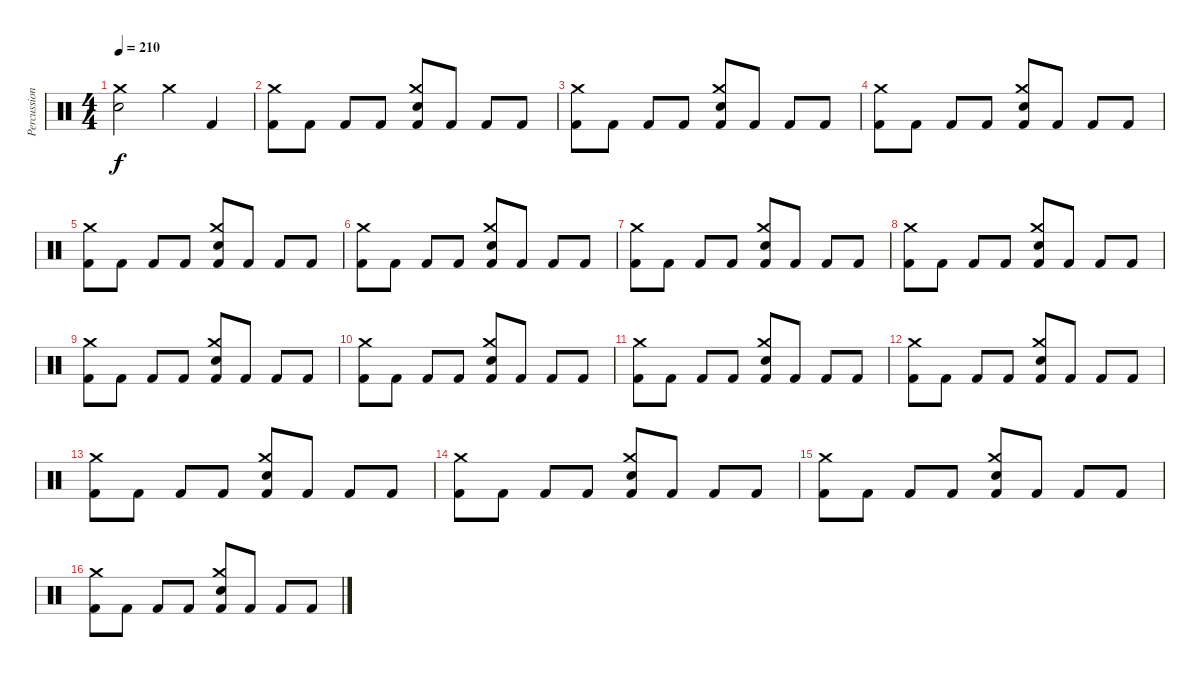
\track ("Percussions" "Percussion") {instrument percussion}
\staff {score}
\articulation defaults
\ts (4 4)
\tempo 210
\clef neutral
\ks c
("Electric Snare (hit)" "Crash medium (hit)").2{dy f} "Crash medium (hit)".4 "Kick (hit) 2".4 |
("Kick (hit) 2" "Crash medium (hit)").8 "Kick (hit) 2".8 "Kick (hit) 2".8 "Kick (hit) 2".8 ("Kick (hit) 2" "Electric Snare (hit)" "Crash medium (hit)").8 "Kick (hit) 2".8 "Kick (hit) 2".8 "Kick (hit) 2".8 |
("Kick (hit) 2" "Crash medium (hit)").8 "Kick (hit) 2".8 "Kick (hit) 2".8 "Kick (hit) 2".8 ("Kick (hit) 2" "Electric Snare (hit)" "Crash medium (hit)").8 "Kick (hit) 2".8 "Kick (hit) 2".8 "Kick (hit) 2".8 |
("Kick (hit) 2" "Crash medium (hit)").8 "Kick (hit) 2".8 "Kick (hit) 2".8 "Kick (hit) 2".8 ("Kick (hit) 2" "Electric Snare (hit)" "Crash medium (hit)").8 "Kick (hit) 2".8 "Kick (hit) 2".8 "Kick (hit) 2".8 |
("Kick (hit) 2" "Crash medium (hit)").8 "Kick (hit) 2".8 "Kick (hit) 2".8 "Kick (hit) 2".8 ("Kick (hit) 2" "Electric Snare (hit)" "Crash medium (hit)").8 "Kick (hit) 2".8 "Kick (hit) 2".8 "Kick (hit) 2".8 |
("Kick (hit) 2" "Crash medium (hit)").8 "Kick (hit) 2".8 "Kick (hit) 2".8 "Kick (hit) 2".8 ("Kick (hit) 2" "Electric Snare (hit)" "Crash medium (hit)").8 "Kick (hit) 2".8 "Kick (hit) 2".8 "Kick (hit) 2".8 |
("Kick (hit) 2" "Crash medium (hit)").8 "Kick (hit) 2".8 "Kick (hit) 2".8 "Kick (hit) 2".8 ("Kick (hit) 2" "Electric Snare (hit)" "Crash medium (hit)").8 "Kick (hit) 2".8 "Kick (hit) 2".8 "Kick (hit) 2".8 |
("Kick (hit) 2" "Crash medium (hit)").8 "Kick (hit) 2".8 "Kick (hit) 2".8 "Kick (hit) 2".8 ("Kick (hit) 2" "Electric Snare (hit)" "Crash medium (hit)").8 "Kick (hit) 2".8 "Kick (hit) 2".8 "Kick (hit) 2".8 |
("Kick (hit) 2" "Crash medium (hit)").8 "Kick (hit) 2".8 "Kick (hit) 2".8 "Kick (hit) 2".8 ("Kick (hit) 2" "Electric Snare (hit)" "Crash medium (hit)").8 "Kick (hit) 2".8 "Kick (hit) 2".8 "Kick (hit) 2".8 |
("Kick (hit) 2" "Crash medium (hit)").8 "Kick (hit) 2".8 "Kick (hit) 2".8 "Kick (hit) 2".8 ("Kick (hit) 2" "Electric Snare (hit)" "Crash medium (hit)").8 "Kick (hit) 2".8 "Kick (hit) 2".8 "Kick (hit) 2".8 |
("Kick (hit) 2" "Crash medium (hit)").8 "Kick (hit) 2".8 "Kick (hit) 2".8 "Kick (hit) 2".8 ("Kick (hit) 2" "Electric Snare (hit)" "Crash medium (hit)").8 "Kick (hit) 2".8 "Kick (hit) 2".8 "Kick (hit) 2".8 |
("Kick (hit) 2" "Crash medium (hit)").8 "Kick (hit) 2".8 "Kick (hit) 2".8 "Kick (hit) 2".8 ("Kick (hit) 2" "Electric Snare (hit)" "Crash medium (hit)").8 "Kick (hit) 2".8 "Kick (hit) 2".8 "Kick (hit) 2".8 |
("Kick (hit) 2" "Crash medium (hit)").8 "Kick (hit) 2".8 "Kick (hit) 2".8 "Kick (hit) 2".8 ("Kick (hit) 2" "Electric Snare (hit)" "Crash medium (hit)").8 "Kick (hit) 2".8 "Kick (hit) 2".8 "Kick (hit) 2".8 |
("Kick (hit) 2" "Crash medium (hit)").8 "Kick (hit) 2".8 "Kick (hit) 2".8 "Kick (hit) 2".8 ("Kick (hit) 2" "Electric Snare (hit)" "Crash medium (hit)").8 "Kick (hit) 2".8 "Kick (hit) 2".8 "Kick (hit) 2".8 |
("Kick (hit) 2" "Crash medium (hit)").8 "Kick (hit) 2".8 "Kick (hit) 2".8 "Kick (hit) 2".8 ("Kick (hit) 2" "Electric Snare (hit)" "Crash medium (hit)").8 "Kick (hit) 2".8 "Kick (hit) 2".8 "Kick (hit) 2".8 |
("Kick (hit) 2" "Crash medium (hit)").8 "Kick (hit) 2".8 "Kick (hit) 2".8 "Kick (hit) 2".8 ("Kick (hit) 2" "Electric Snare (hit)" "Crash medium (hit)").8 "Kick (hit) 2".8 "Kick (hit) 2".8 "Kick (hit) 2".8
